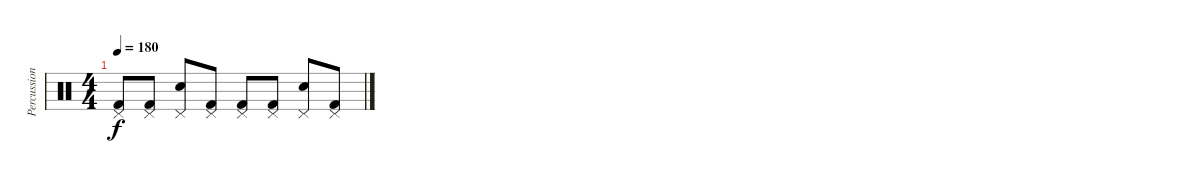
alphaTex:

\track ("Percussion" "Percussion") {instrument percussion}
\staff {score}
\articulation defaults
\ts (4 4)
\tempo 180
\clef neutral
\ks c
("Pedal Hi-Hat (hit)" "Kick (hit) 2").8{dy f} ("Pedal Hi-Hat (hit)" "Kick (hit) 2").8 ("Pedal Hi-Hat (hit)" "Snare (hit) 2").8 ("Pedal Hi-Hat (hit)" "Kick (hit) 2").8 ("Pedal Hi-Hat (hit)" "Kick (hit) 2").8 ("Pedal Hi-Hat (hit)" "Kick (hit) 2").8 ("Pedal Hi-Hat (hit)" "Snare (hit) 2").8 ("Pedal Hi-Hat (hit)" "Kick (hit) 2").8
